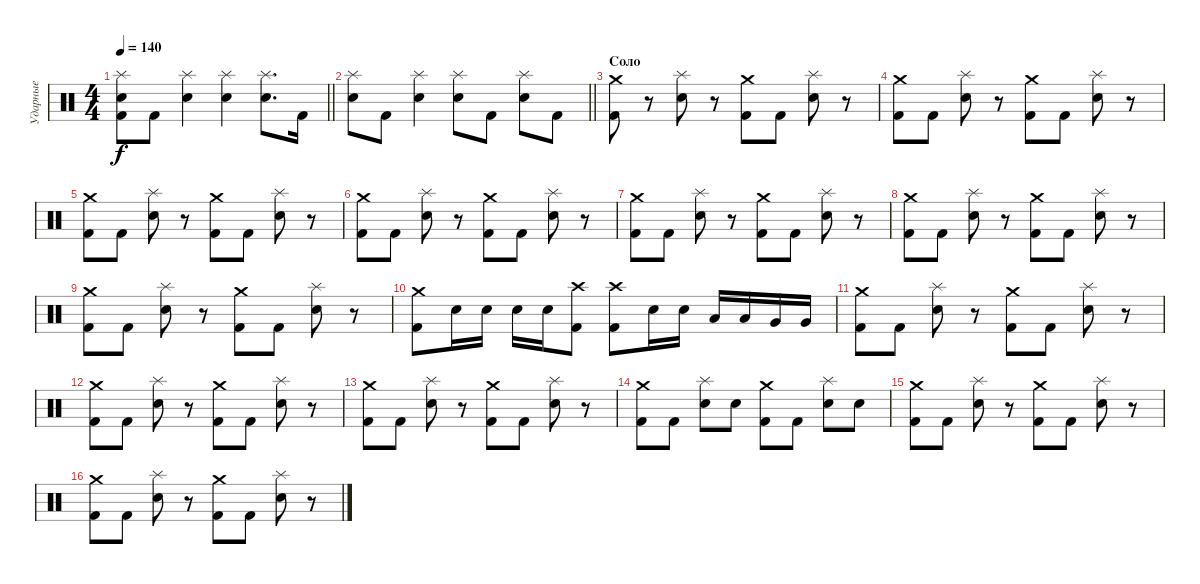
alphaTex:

\track ("Ударные" "Ударные") {instrument percussion}
\staff {score}
\articulation defaults
\ts (4 4)
\tempo 140
\clef neutral
\barLineRight lightlight
\ks c
("Splash (hit)" "Electric Snare (hit)" "Kick (hit) 2").8{dy f} "Kick (hit) 2".8 ("Splash (hit)" "Electric Snare (hit)").4 ("Splash (hit)" "Electric Snare (hit)").4 ("Splash (hit)" "Electric Snare (hit)").8{d} "Kick (hit) 2".16 |
\barLineRight lightlight
("Splash (hit)" "Electric Snare (hit)").8 "Kick (hit) 2".8 ("Splash (hit)" "Electric Snare (hit)").4 ("Splash (hit)" "Electric Snare (hit)").8 "Kick (hit) 2".8 ("Splash (hit)" "Electric Snare (hit)").8 "Kick (hit) 2".8 |
\section ("" "Соло")
("Crash medium (hit)" "Kick (hit) 2").8 r.8 ("Splash (hit)" "Electric Snare (hit)").8 r.8 ("Crash medium (hit)" "Kick (hit) 2").8 "Kick (hit) 2".8 ("Splash (hit)" "Electric Snare (hit)").8 r.8 |
("Crash medium (hit)" "Kick (hit) 2").8 "Kick (hit) 2".8 ("Splash (hit)" "Electric Snare (hit)").8 r.8 ("Crash medium (hit)" "Kick (hit) 2").8 "Kick (hit) 2".8 ("Splash (hit)" "Electric Snare (hit)").8 r.8 |
("Crash medium (hit)" "Kick (hit) 2").8 "Kick (hit) 2".8 ("Splash (hit)" "Electric Snare (hit)").8 r.8 ("Crash medium (hit)" "Kick (hit) 2").8 "Kick (hit) 2".8 ("Splash (hit)" "Electric Snare (hit)").8 r.8 |
("Crash medium (hit)" "Kick (hit) 2").8 "Kick (hit) 2".8 ("Splash (hit)" "Electric Snare (hit)").8 r.8 ("Crash medium (hit)" "Kick (hit) 2").8 "Kick (hit) 2".8 ("Splash (hit)" "Electric Snare (hit)").8 r.8 |
("Crash medium (hit)" "Kick (hit) 2").8 "Kick (hit) 2".8 ("Splash (hit)" "Electric Snare (hit)").8 r.8 ("Crash medium (hit)" "Kick (hit) 2").8 "Kick (hit) 2".8 ("Splash (hit)" "Electric Snare (hit)").8 r.8 |
("Crash medium (hit)" "Kick (hit) 2").8 "Kick (hit) 2".8 ("Splash (hit)" "Electric Snare (hit)").8 r.8 ("Crash medium (hit)" "Kick (hit) 2").8 "Kick (hit) 2".8 ("Splash (hit)" "Electric Snare (hit)").8 r.8 |
("Crash medium (hit)" "Kick (hit) 2").8 "Kick (hit) 2".8 ("Splash (hit)" "Electric Snare (hit)").8 r.8 ("Crash medium (hit)" "Kick (hit) 2").8 "Kick (hit) 2".8 ("Splash (hit)" "Electric Snare (hit)").8 r.8 |
("Crash medium (hit)" "Kick (hit) 2").8 "Electric Snare (hit)".16 "Electric Snare (hit)".16 "Electric Snare (hit)".16 "Electric Snare (hit)".16 ("Crash high (hit)" "Kick (hit) 2").8 ("Crash high (hit)" "Kick (hit) 2").8 "Electric Snare (hit)".16 "Electric Snare (hit)".16 "Low Tom (hit)".16 "Low Tom (hit)".16 "Very Low Tom (hit)".16 "Very Low Tom (hit)".16 |
("Crash medium (hit)" "Kick (hit) 2").8 "Kick (hit) 2".8 ("Splash (hit)" "Electric Snare (hit)").8 r.8 ("Crash medium (hit)" "Kick (hit) 2").8 "Kick (hit) 2".8 ("Splash (hit)" "Electric Snare (hit)").8 r.8 |
("Crash medium (hit)" "Kick (hit) 2").8 "Kick (hit) 2".8 ("Splash (hit)" "Electric Snare (hit)").8 r.8 ("Crash medium (hit)" "Kick (hit) 2").8 "Kick (hit) 2".8 ("Splash (hit)" "Electric Snare (hit)").8 r.8 |
("Crash medium (hit)" "Kick (hit) 2").8 "Kick (hit) 2".8 ("Splash (hit)" "Electric Snare (hit)").8 r.8 ("Crash medium (hit)" "Kick (hit) 2").8 "Kick (hit) 2".8 ("Splash (hit)" "Electric Snare (hit)").8 r.8 |
("Crash medium (hit)" "Kick (hit) 2").8 "Kick (hit) 2".8 ("Splash (hit)" "Electric Snare (hit)").8 "Electric Snare (hit)".8 ("Crash medium (hit)" "Kick (hit) 2").8 "Kick (hit) 2".8 ("Splash (hit)" "Electric Snare (hit)").8 "Electric Snare (hit)".8 |
("Crash medium (hit)" "Kick (hit) 2").8 "Kick (hit) 2".8 ("Splash (hit)" "Electric Snare (hit)").8 r.8 ("Crash medium (hit)" "Kick (hit) 2").8 "Kick (hit) 2".8 ("Splash (hit)" "Electric Snare (hit)").8 r.8 |
("Crash medium (hit)" "Kick (hit) 2").8 "Kick (hit) 2".8 ("Splash (hit)" "Electric Snare (hit)").8 r.8 ("Crash medium (hit)" "Kick (hit) 2").8 "Kick (hit) 2".8 ("Splash (hit)" "Electric Snare (hit)").8 r.8
